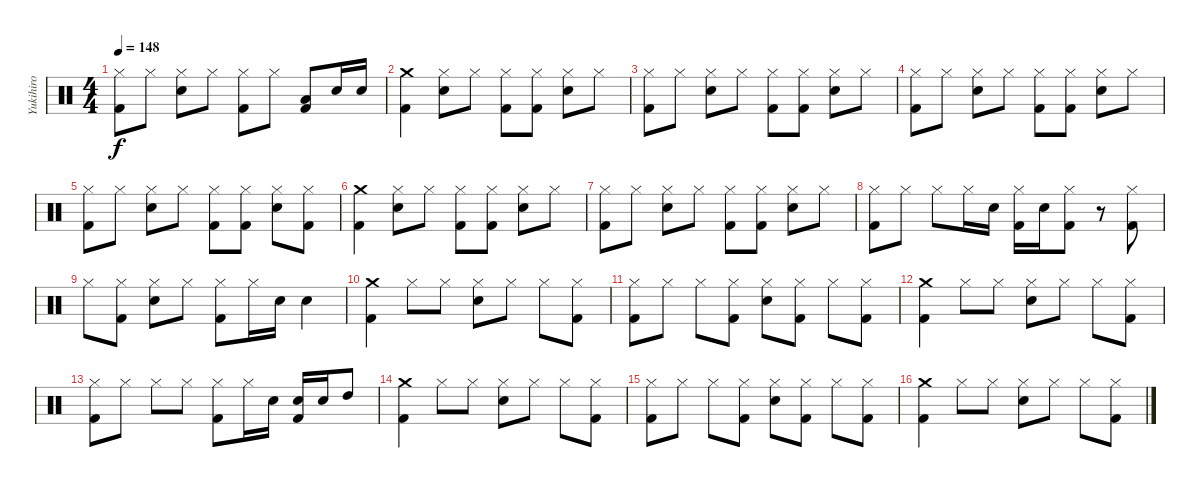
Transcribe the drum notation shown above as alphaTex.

\track ("Yukihiro" "Yukihiro") {instrument percussion}
\staff {score}
\articulation defaults
\ts (4 4)
\tempo 148
\clef neutral
\ks c
("Hi-Hat (closed)" "Kick (hit) 2").8{dy f} "Hi-Hat (closed)".8 ("Hi-Hat (closed)" "Snare (hit) 2").8 "Hi-Hat (closed)".8 ("Hi-Hat (closed)" "Kick (hit) 2").8 "Hi-Hat (closed)".8 ("Low Tom (hit)" "Kick (hit) 2").8 "Snare (hit) 2".16 "Snare (hit) 2".16 |
("Crash medium (hit)" "Kick (hit) 2").4 ("Hi-Hat (closed)" "Snare (hit) 2").8 "Hi-Hat (closed)".8 ("Hi-Hat (closed)" "Kick (hit) 2").8 ("Hi-Hat (closed)" "Kick (hit) 2").8 ("Hi-Hat (closed)" "Snare (hit) 2").8 "Hi-Hat (closed)".8 |
("Hi-Hat (closed)" "Kick (hit) 2").8 "Hi-Hat (closed)".8 ("Hi-Hat (closed)" "Snare (hit) 2").8 "Hi-Hat (closed)".8 ("Hi-Hat (closed)" "Kick (hit) 2").8 ("Hi-Hat (closed)" "Kick (hit) 2").8 ("Hi-Hat (closed)" "Snare (hit) 2").8 "Hi-Hat (closed)".8 |
("Hi-Hat (closed)" "Kick (hit) 2").8 "Hi-Hat (closed)".8 ("Hi-Hat (closed)" "Snare (hit) 2").8 "Hi-Hat (closed)".8 ("Hi-Hat (closed)" "Kick (hit) 2").8 ("Hi-Hat (closed)" "Kick (hit) 2").8 ("Hi-Hat (closed)" "Snare (hit) 2").8 "Hi-Hat (closed)".8 |
("Hi-Hat (closed)" "Kick (hit) 2").8 "Hi-Hat (closed)".8 ("Hi-Hat (closed)" "Snare (hit) 2").8 "Hi-Hat (closed)".8 ("Hi-Hat (closed)" "Kick (hit) 2").8 ("Hi-Hat (closed)" "Kick (hit) 2").8 ("Hi-Hat (closed)" "Snare (hit) 2").8 ("Hi-Hat (closed)" "Kick (hit) 2").8 |
("Crash medium (hit)" "Kick (hit) 2").4 ("Hi-Hat (closed)" "Snare (hit) 2").8 "Hi-Hat (closed)".8 ("Hi-Hat (closed)" "Kick (hit) 2").8 ("Hi-Hat (closed)" "Kick (hit) 2").8 ("Hi-Hat (closed)" "Snare (hit) 2").8 "Hi-Hat (closed)".8 |
("Hi-Hat (closed)" "Kick (hit) 2").8 "Hi-Hat (closed)".8 ("Hi-Hat (closed)" "Snare (hit) 2").8 "Hi-Hat (closed)".8 ("Hi-Hat (closed)" "Kick (hit) 2").8 ("Hi-Hat (closed)" "Kick (hit) 2").8 ("Hi-Hat (closed)" "Snare (hit) 2").8 "Hi-Hat (closed)".8 |
("Hi-Hat (closed)" "Kick (hit) 2").8 "Hi-Hat (closed)".8 "Hi-Hat (closed)".8 "Hi-Hat (closed)".16 "Snare (hit) 2".16 ("Hi-Hat (closed)" "Kick (hit) 2").16 "Snare (hit) 2".16 ("Hi-Hat (closed)" "Kick (hit) 2").8 r.8 ("Hi-Hat (closed)" "Kick (hit) 2").8 |
"Hi-Hat (closed)".8 ("Hi-Hat (closed)" "Kick (hit) 2").8 ("Hi-Hat (closed)" "Snare (hit) 2").8 "Hi-Hat (closed)".8 ("Hi-Hat (closed)" "Kick (hit) 2").8 "Hi-Hat (closed)".16 "Snare (hit) 2".16 "Snare (hit) 2".4 |
("Crash medium (hit)" "Kick (hit) 2").4 "Hi-Hat (closed)".8 "Hi-Hat (closed)".8 ("Hi-Hat (closed)" "Snare (hit) 2").8 "Hi-Hat (closed)".8 "Hi-Hat (closed)".8 ("Hi-Hat (closed)" "Kick (hit) 2").8 |
("Hi-Hat (closed)" "Kick (hit) 2").8 "Hi-Hat (closed)".8 "Hi-Hat (closed)".8 ("Hi-Hat (closed)" "Kick (hit) 2").8 ("Hi-Hat (closed)" "Snare (hit) 2").8 ("Hi-Hat (closed)" "Kick (hit) 2").8 "Hi-Hat (closed)".8 ("Hi-Hat (closed)" "Kick (hit) 2").8 |
("Crash medium (hit)" "Kick (hit) 2").4 "Hi-Hat (closed)".8 "Hi-Hat (closed)".8 ("Hi-Hat (closed)" "Snare (hit) 2").8 "Hi-Hat (closed)".8 "Hi-Hat (closed)".8 ("Hi-Hat (closed)" "Kick (hit) 2").8 |
("Hi-Hat (closed)" "Kick (hit) 2").8 "Hi-Hat (closed)".8 "Hi-Hat (closed)".8 "Hi-Hat (closed)".8 ("Hi-Hat (closed)" "Kick (hit) 2").8 "Hi-Hat (closed)".16 "Snare (hit) 2".16 ("Snare (hit) 2" "Kick (hit) 2").16 "Snare (hit) 2".16 "High Tom (hit)".8 |
("Crash medium (hit)" "Kick (hit) 2").4 "Hi-Hat (closed)".8 "Hi-Hat (closed)".8 ("Hi-Hat (closed)" "Snare (hit) 2").8 "Hi-Hat (closed)".8 "Hi-Hat (closed)".8 ("Hi-Hat (closed)" "Kick (hit) 2").8 |
("Hi-Hat (closed)" "Kick (hit) 2").8 "Hi-Hat (closed)".8 "Hi-Hat (closed)".8 ("Hi-Hat (closed)" "Kick (hit) 2").8 ("Hi-Hat (closed)" "Snare (hit) 2").8 ("Hi-Hat (closed)" "Kick (hit) 2").8 "Hi-Hat (closed)".8 ("Hi-Hat (closed)" "Kick (hit) 2").8 |
("Crash medium (hit)" "Kick (hit) 2").4 "Hi-Hat (closed)".8 "Hi-Hat (closed)".8 ("Hi-Hat (closed)" "Snare (hit) 2").8 "Hi-Hat (closed)".8 "Hi-Hat (closed)".8 ("Hi-Hat (closed)" "Kick (hit) 2").8
